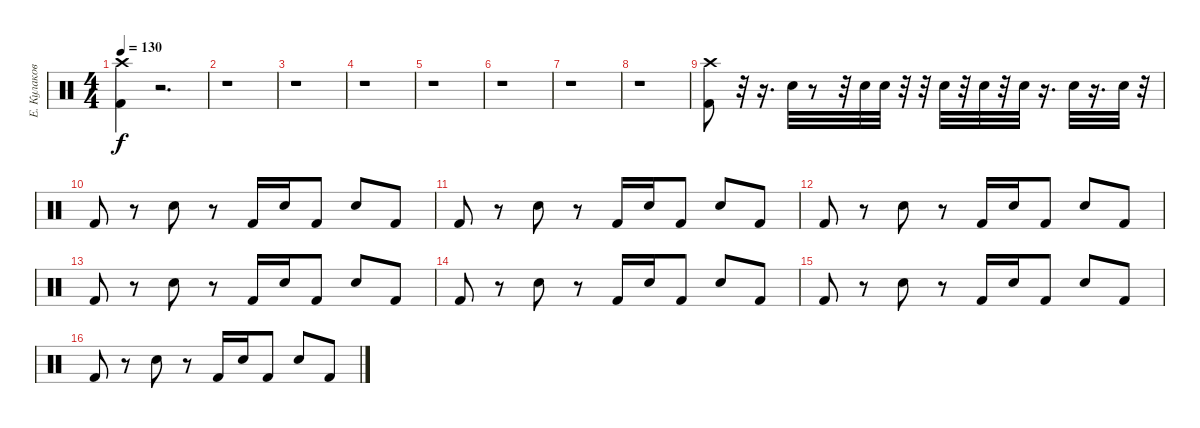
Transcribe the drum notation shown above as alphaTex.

\track ("Е. Кулаков" "Е. Кулаков") {instrument percussion}
\staff {score}
\articulation defaults
\ts (4 4)
\tempo 130
\clef neutral
\ks c
("Crash high (hit)" "Kick (hit) 2").4{dy f} r.2{d} |
r.1 |
r.1 |
r.1 |
r.1 |
r.1 |
r.1 |
r.1 |
("Kick (hit) 2" "Crash high (hit)").8 r.32 r.16{d} "Electric Snare (hit)".32 r.8 r.32 "Electric Snare (hit)".32 "Electric Snare (hit)".32 r.32 r.32 "Electric Snare (hit)".32 r.32 "Electric Snare (hit)".32 r.32 "Electric Snare (hit)".32 r.16{d} "Electric Snare (hit)".32 r.16{d} "Electric Snare (hit)".32 r.32 |
"Kick (hit) 2".8 r.8 "Electric Snare (hit)".8 r.8 "Kick (hit) 2".16 "Electric Snare (hit)".16 "Kick (hit) 2".8 "Electric Snare (hit)".8 "Kick (hit) 2".8 |
"Kick (hit) 2".8 r.8 "Electric Snare (hit)".8 r.8 "Kick (hit) 2".16 "Electric Snare (hit)".16 "Kick (hit) 2".8 "Electric Snare (hit)".8 "Kick (hit) 2".8 |
"Kick (hit) 2".8 r.8 "Electric Snare (hit)".8 r.8 "Kick (hit) 2".16 "Electric Snare (hit)".16 "Kick (hit) 2".8 "Electric Snare (hit)".8 "Kick (hit) 2".8 |
"Kick (hit) 2".8 r.8 "Electric Snare (hit)".8 r.8 "Kick (hit) 2".16 "Electric Snare (hit)".16 "Kick (hit) 2".8 "Electric Snare (hit)".8 "Kick (hit) 2".8 |
"Kick (hit) 2".8 r.8 "Electric Snare (hit)".8 r.8 "Kick (hit) 2".16 "Electric Snare (hit)".16 "Kick (hit) 2".8 "Electric Snare (hit)".8 "Kick (hit) 2".8 |
"Kick (hit) 2".8 r.8 "Electric Snare (hit)".8 r.8 "Kick (hit) 2".16 "Electric Snare (hit)".16 "Kick (hit) 2".8 "Electric Snare (hit)".8 "Kick (hit) 2".8 |
"Kick (hit) 2".8 r.8 "Electric Snare (hit)".8 r.8 "Kick (hit) 2".16 "Electric Snare (hit)".16 "Kick (hit) 2".8 "Electric Snare (hit)".8 "Kick (hit) 2".8
